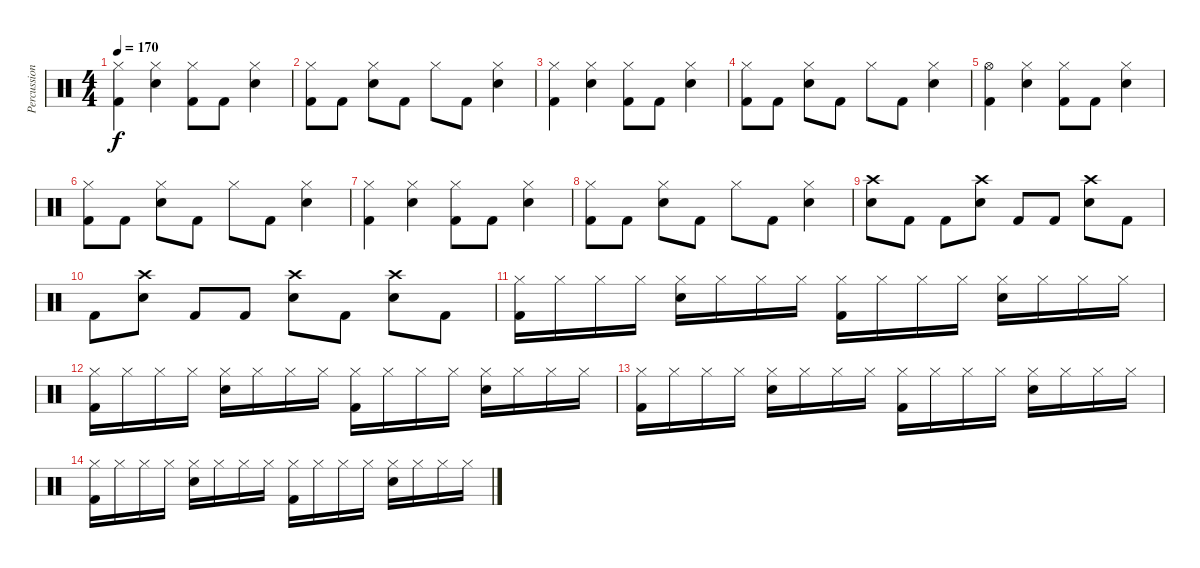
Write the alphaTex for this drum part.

\track ("Percussions" "Percussion") {instrument percussion}
\staff {score}
\articulation defaults
\ts (4 4)
\tempo 170
\clef neutral
\ks c
("Hi-Hat (closed)" "Kick (hit) 2").4{dy f} ("Snare (hit) 2" "Hi-Hat (closed)").4 ("Kick (hit) 2" "Hi-Hat (closed)").8 "Kick (hit) 2".8 ("Snare (hit) 2" "Hi-Hat (closed)").4 |
("Kick (hit) 2" "Hi-Hat (closed)").8 "Kick (hit) 2".8 ("Snare (hit) 2" "Hi-Hat (closed)").8 "Kick (hit) 2".8 "Hi-Hat (closed)".8 "Kick (hit) 2".8 ("Snare (hit) 2" "Hi-Hat (closed)").4 |
("Hi-Hat (closed)" "Kick (hit) 2").4 ("Snare (hit) 2" "Hi-Hat (closed)").4 ("Kick (hit) 2" "Hi-Hat (closed)").8 "Kick (hit) 2".8 ("Snare (hit) 2" "Hi-Hat (closed)").4 |
("Kick (hit) 2" "Hi-Hat (closed)").8 "Kick (hit) 2".8 ("Snare (hit) 2" "Hi-Hat (closed)").8 "Kick (hit) 2".8 "Hi-Hat (closed)".8 "Kick (hit) 2".8 ("Snare (hit) 2" "Hi-Hat (closed)").4 |
("Hi-Hat (open)" "Kick (hit) 2").4 ("Snare (hit) 2" "Hi-Hat (closed)").4 ("Kick (hit) 2" "Hi-Hat (closed)").8 "Kick (hit) 2".8 ("Snare (hit) 2" "Hi-Hat (closed)").4 |
("Kick (hit) 2" "Hi-Hat (closed)").8 "Kick (hit) 2".8 ("Snare (hit) 2" "Hi-Hat (closed)").8 "Kick (hit) 2".8 "Hi-Hat (closed)".8 "Kick (hit) 2".8 ("Snare (hit) 2" "Hi-Hat (closed)").4 |
("Hi-Hat (closed)" "Kick (hit) 2").4 ("Snare (hit) 2" "Hi-Hat (closed)").4 ("Kick (hit) 2" "Hi-Hat (closed)").8 "Kick (hit) 2".8 ("Snare (hit) 2" "Hi-Hat (closed)").4 |
("Kick (hit) 2" "Hi-Hat (closed)").8 "Kick (hit) 2".8 ("Snare (hit) 2" "Hi-Hat (closed)").8 "Kick (hit) 2".8 "Hi-Hat (closed)".8 "Kick (hit) 2".8 ("Snare (hit) 2" "Hi-Hat (closed)").4 |
("Snare (hit) 2" "Crash high (hit)").8 "Kick (hit) 2".8 "Kick (hit) 2".8 ("Snare (hit) 2" "Crash high (hit)").8 "Kick (hit) 2".8 "Kick (hit) 2".8 ("Crash high (hit)" "Snare (hit) 2").8 "Kick (hit) 2".8 |
"Kick (hit) 2".8 ("Crash high (hit)" "Snare (hit) 2").8 "Kick (hit) 2".8 "Kick (hit) 2".8 ("Snare (hit) 2" "Crash high (hit)").8 "Kick (hit) 2".8 ("Snare (hit) 2" "Crash high (hit)").8 "Kick (hit) 2".8 |
("Hi-Hat (closed)" "Kick (hit) 2").16 "Hi-Hat (closed)".16 "Hi-Hat (closed)".16 "Hi-Hat (closed)".16 ("Hi-Hat (closed)" "Snare (hit) 2").16 "Hi-Hat (closed)".16 "Hi-Hat (closed)".16 "Hi-Hat (closed)".16 ("Hi-Hat (closed)" "Kick (hit) 2").16 "Hi-Hat (closed)".16 "Hi-Hat (closed)".16 "Hi-Hat (closed)".16 ("Hi-Hat (closed)" "Snare (hit) 2").16 "Hi-Hat (closed)".16 "Hi-Hat (closed)".16 "Hi-Hat (closed)".16 |
("Hi-Hat (closed)" "Kick (hit) 2").16 "Hi-Hat (closed)".16 "Hi-Hat (closed)".16 "Hi-Hat (closed)".16 ("Hi-Hat (closed)" "Snare (hit) 2").16 "Hi-Hat (closed)".16 "Hi-Hat (closed)".16 "Hi-Hat (closed)".16 ("Hi-Hat (closed)" "Kick (hit) 2").16 "Hi-Hat (closed)".16 "Hi-Hat (closed)".16 "Hi-Hat (closed)".16 ("Hi-Hat (closed)" "Snare (hit) 2").16 "Hi-Hat (closed)".16 "Hi-Hat (closed)".16 "Hi-Hat (closed)".16 |
("Hi-Hat (closed)" "Kick (hit) 2").16 "Hi-Hat (closed)".16 "Hi-Hat (closed)".16 "Hi-Hat (closed)".16 ("Hi-Hat (closed)" "Snare (hit) 2").16 "Hi-Hat (closed)".16 "Hi-Hat (closed)".16 "Hi-Hat (closed)".16 ("Hi-Hat (closed)" "Kick (hit) 2").16 "Hi-Hat (closed)".16 "Hi-Hat (closed)".16 "Hi-Hat (closed)".16 ("Hi-Hat (closed)" "Snare (hit) 2").16 "Hi-Hat (closed)".16 "Hi-Hat (closed)".16 "Hi-Hat (closed)".16 |
("Hi-Hat (closed)" "Kick (hit) 2").16 "Hi-Hat (closed)".16 "Hi-Hat (closed)".16 "Hi-Hat (closed)".16 ("Hi-Hat (closed)" "Snare (hit) 2").16 "Hi-Hat (closed)".16 "Hi-Hat (closed)".16 "Hi-Hat (closed)".16 ("Hi-Hat (closed)" "Kick (hit) 2").16 "Hi-Hat (closed)".16 "Hi-Hat (closed)".16 "Hi-Hat (closed)".16 ("Hi-Hat (closed)" "Snare (hit) 2").16 "Hi-Hat (closed)".16 "Hi-Hat (closed)".16 "Hi-Hat (closed)".16
